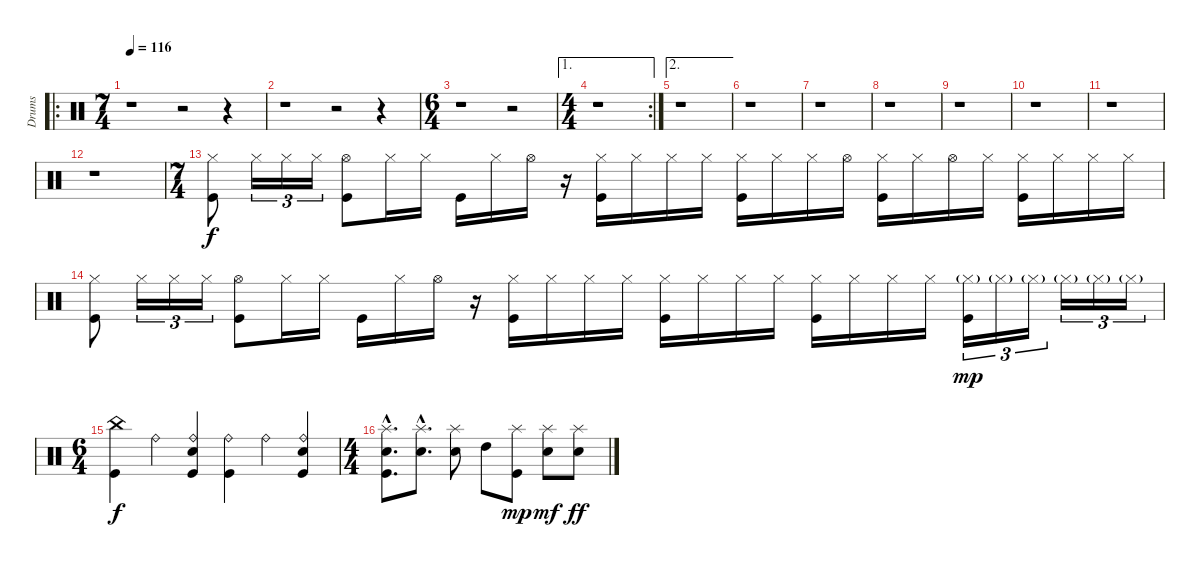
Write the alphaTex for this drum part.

\track ("Drums" "Drums") {instrument percussion}
\staff {score}
\articulation defaults
\ro
\ts (7 4)
\tempo 116
\clef neutral
\ks c
r.1{dy f} r.2 r.4 |
r.1 r.2 r.4 |
\ts (6 4)
r.1 r.2 |
\ae 1
\rc 2
\ts (4 4)
r.1 |
\ae 2
r.1 |
r.1 |
r.1 |
r.1 |
r.1 |
r.1 |
r.1 |
r.1 |
\ts (7 4)
("Hi-Hat (closed)" "Kick (hit)").8 "Hi-Hat (closed)".16{tu (3 2)} "Hi-Hat (closed)".16{tu (3 2)} "Hi-Hat (closed)".16{tu (3 2)} ("Hi-Hat (open)" "Kick (hit)").8 "Hi-Hat (closed)".16 "Hi-Hat (closed)".16 "Kick (hit)".16 "Hi-Hat (closed)".16 "Hi-Hat (open)".16 r.16 ("Hi-Hat (closed)" "Kick (hit)").16 "Hi-Hat (closed)".16 "Hi-Hat (closed)".16 "Hi-Hat (closed)".16 ("Hi-Hat (closed)" "Kick (hit)").16 "Hi-Hat (closed)".16 "Hi-Hat (closed)".16 "Hi-Hat (open)".16 ("Hi-Hat (closed)" "Kick (hit)").16 "Hi-Hat (closed)".16 "Hi-Hat (open)".16 "Hi-Hat (closed)".16 ("Hi-Hat (closed)" "Kick (hit)").16 "Hi-Hat (closed)".16 "Hi-Hat (closed)".16 "Hi-Hat (closed)".16 |
("Hi-Hat (closed)" "Kick (hit)").8 "Hi-Hat (closed)".16{tu (3 2)} "Hi-Hat (closed)".16{tu (3 2)} "Hi-Hat (closed)".16{tu (3 2)} ("Hi-Hat (open)" "Kick (hit)").8 "Hi-Hat (closed)".16 "Hi-Hat (closed)".16 "Kick (hit)".16 "Hi-Hat (closed)".16 "Hi-Hat (open)".16 r.16 ("Hi-Hat (closed)" "Kick (hit)").16 "Hi-Hat (closed)".16 "Hi-Hat (closed)".16 "Hi-Hat (closed)".16 ("Hi-Hat (closed)" "Kick (hit)").16 "Hi-Hat (closed)".16 "Hi-Hat (closed)".16 "Hi-Hat (closed)".16 ("Hi-Hat (closed)" "Kick (hit)").16 "Hi-Hat (closed)".16 "Hi-Hat (closed)".16 "Hi-Hat (closed)".16 ("Hi-Hat (closed)"{g} "Kick (hit)").16{tu (3 2) dy mp} "Hi-Hat (closed)"{g}.16{tu (3 2)} "Hi-Hat (closed)"{g}.16{tu (3 2)} "Hi-Hat (closed)"{g}.16{tu (3 2)} "Hi-Hat (closed)"{g}.16{tu (3 2)} "Hi-Hat (closed)"{g}.16{tu (3 2)} |
\ts (6 4)
("China (hit)" "Kick (hit)").4{dy f} "Ride (bell)".4 ("Ride (bell)" "Electric Snare (hit)" "Kick (hit)").4 ("Ride (bell)" "Kick (hit)").4 "Ride (bell)".4 ("Ride (bell)" "Electric Snare (hit)" "Kick (hit)").4 |
\ts (4 4)
("Splash (hit)"{hac} "Electric Snare (hit)"{hac} "Kick (hit)"{hac}).8{d} ("Splash (hit)"{hac} "Electric Snare (hit)"{hac}).8{d} ("Splash (hit)" "Electric Snare (hit)").8 "High Tom (hit)".8 ("Splash (hit)" "Kick (hit)").8{dy mp} ("Splash (hit)" "Electric Snare (hit)").8{dy mf} ("Splash (hit)" "Electric Snare (hit)").8{dy ff}
